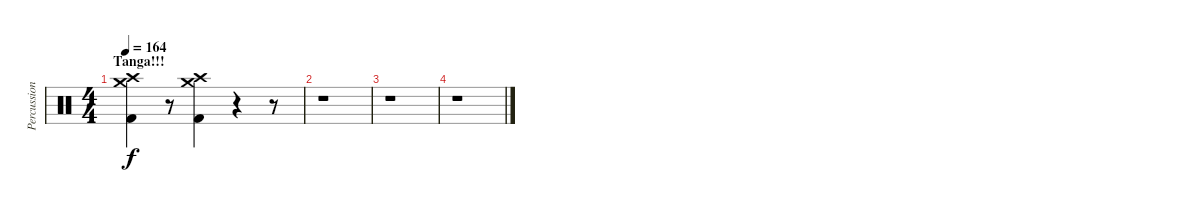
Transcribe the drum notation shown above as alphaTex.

\track ("Percussion" "Percussion") {instrument percussion}
\staff {score}
\articulation defaults
\ts (4 4)
\section ("" "Tanga!!!")
\tempo 164
\clef neutral
\ks c
("Crash high (hit)" "Crash medium (hit)" "Kick (hit) 2").4{dy f} r.8 ("Crash high (hit)" "Crash medium (hit)" "Kick (hit) 2").4 r.4 r.8 |
r.1 |
r.1 |
r.1
